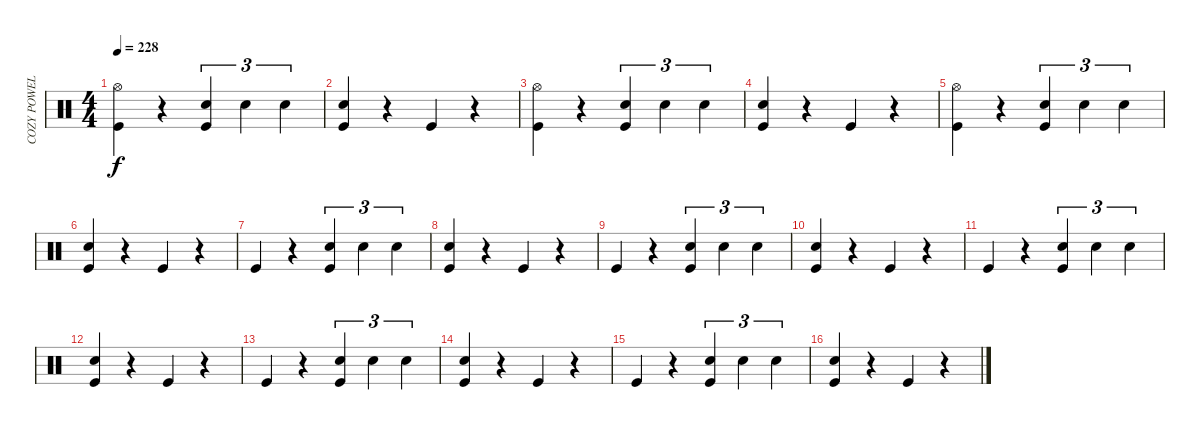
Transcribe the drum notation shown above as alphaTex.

\track ("COZY POWELL" "COZY POWEL") {instrument percussion}
\staff {score}
\articulation defaults
\ts (4 4)
\tempo 228
\clef neutral
\ks c
("Hi-Hat (open)" "Kick (hit)").4{dy f} r.4 ("Snare (hit) 2" "Kick (hit)").4{tu (3 2)} "Snare (hit) 2".4{tu (3 2)} "Snare (hit) 2".4{tu (3 2)} |
("Snare (hit) 2" "Kick (hit)").4 r.4 "Kick (hit)".4 r.4 |
("Hi-Hat (open)" "Kick (hit)").4 r.4 ("Snare (hit) 2" "Kick (hit)").4{tu (3 2)} "Snare (hit) 2".4{tu (3 2)} "Snare (hit) 2".4{tu (3 2)} |
("Snare (hit) 2" "Kick (hit)").4 r.4 "Kick (hit)".4 r.4 |
("Hi-Hat (open)" "Kick (hit)").4 r.4 ("Snare (hit) 2" "Kick (hit)").4{tu (3 2)} "Snare (hit) 2".4{tu (3 2)} "Snare (hit) 2".4{tu (3 2)} |
("Snare (hit) 2" "Kick (hit)").4 r.4 "Kick (hit)".4 r.4 |
"Kick (hit)".4 r.4 ("Snare (hit) 2" "Kick (hit)").4{tu (3 2)} "Snare (hit) 2".4{tu (3 2)} "Snare (hit) 2".4{tu (3 2)} |
("Snare (hit) 2" "Kick (hit)").4 r.4 "Kick (hit)".4 r.4 |
"Kick (hit)".4 r.4 ("Snare (hit) 2" "Kick (hit)").4{tu (3 2)} "Snare (hit) 2".4{tu (3 2)} "Snare (hit) 2".4{tu (3 2)} |
("Snare (hit) 2" "Kick (hit)").4 r.4 "Kick (hit)".4 r.4 |
"Kick (hit)".4 r.4 ("Snare (hit) 2" "Kick (hit)").4{tu (3 2)} "Snare (hit) 2".4{tu (3 2)} "Snare (hit) 2".4{tu (3 2)} |
("Snare (hit) 2" "Kick (hit)").4 r.4 "Kick (hit)".4 r.4 |
"Kick (hit)".4 r.4 ("Snare (hit) 2" "Kick (hit)").4{tu (3 2)} "Snare (hit) 2".4{tu (3 2)} "Snare (hit) 2".4{tu (3 2)} |
("Snare (hit) 2" "Kick (hit)").4 r.4 "Kick (hit)".4 r.4 |
"Kick (hit)".4 r.4 ("Snare (hit) 2" "Kick (hit)").4{tu (3 2)} "Snare (hit) 2".4{tu (3 2)} "Snare (hit) 2".4{tu (3 2)} |
("Snare (hit) 2" "Kick (hit)").4 r.4 "Kick (hit)".4 r.4
